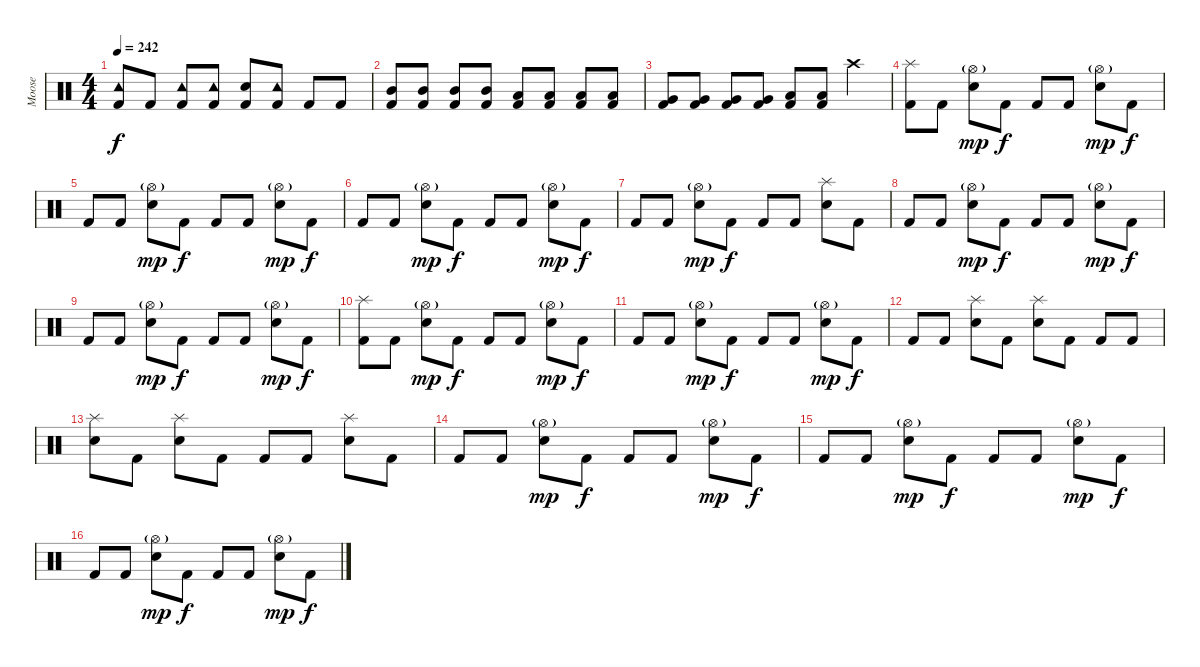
\track ("Moose" "Moose") {instrument percussion}
\staff {score}
\articulation defaults
\ts (4 4)
\tempo 242
\clef neutral
\ks c
("Tambourine (hit)" "Kick (hit) 2").8{dy f} "Kick (hit) 2".8 ("Tambourine (hit)" "Kick (hit) 2").8 ("Tambourine (hit)" "Kick (hit) 2").8 ("Electric Snare (hit)" "Kick (hit) 2").8 ("Tambourine (hit)" "Kick (hit) 2").8 "Kick (hit) 2".8 "Kick (hit) 2".8 |
("Mid Tom (hit)" "Kick (hit) 2").8 ("Mid Tom (hit)" "Kick (hit) 2").8 ("Mid Tom (hit)" "Kick (hit) 2").8 ("Mid Tom (hit)" "Kick (hit) 2").8 ("Low Tom (hit)" "Kick (hit) 2").8 ("Low Tom (hit)" "Kick (hit) 2").8 ("Low Tom (hit)" "Kick (hit) 2").8 ("Low Tom (hit)" "Kick (hit) 2").8 |
("Very Low Tom (hit)" "Kick (hit) 2").8 ("Very Low Tom (hit)" "Kick (hit) 2").8 ("Very Low Tom (hit)" "Kick (hit) 2").8 ("Very Low Tom (hit)" "Kick (hit) 2").8 ("Low Floor Tom (hit)" "Kick (hit) 2").8 ("Low Floor Tom (hit)" "Kick (hit) 2").8 "Crash high (hit)".4 |
("Splash (hit)" "Kick (hit) 2").8 "Kick (hit) 2".8 ("Hi-Hat (open)"{g} "Electric Snare (hit)").8{dy mp} "Kick (hit) 2".8{dy f} "Kick (hit) 2".8 "Kick (hit) 2".8 ("Hi-Hat (open)"{g} "Electric Snare (hit)").8{dy mp} "Kick (hit) 2".8{dy f} |
"Kick (hit) 2".8 "Kick (hit) 2".8 ("Hi-Hat (open)"{g} "Electric Snare (hit)").8{dy mp} "Kick (hit) 2".8{dy f} "Kick (hit) 2".8 "Kick (hit) 2".8 ("Hi-Hat (open)"{g} "Electric Snare (hit)").8{dy mp} "Kick (hit) 2".8{dy f} |
"Kick (hit) 2".8 "Kick (hit) 2".8 ("Hi-Hat (open)"{g} "Electric Snare (hit)").8{dy mp} "Kick (hit) 2".8{dy f} "Kick (hit) 2".8 "Kick (hit) 2".8 ("Hi-Hat (open)"{g} "Electric Snare (hit)").8{dy mp} "Kick (hit) 2".8{dy f} |
"Kick (hit) 2".8 "Kick (hit) 2".8 ("Hi-Hat (open)"{g} "Electric Snare (hit)").8{dy mp} "Kick (hit) 2".8{dy f} "Kick (hit) 2".8 "Kick (hit) 2".8 ("Splash (hit)" "Electric Snare (hit)").8 "Kick (hit) 2".8 |
"Kick (hit) 2".8 "Kick (hit) 2".8 ("Hi-Hat (open)"{g} "Electric Snare (hit)").8{dy mp} "Kick (hit) 2".8{dy f} "Kick (hit) 2".8 "Kick (hit) 2".8 ("Hi-Hat (open)"{g} "Electric Snare (hit)").8{dy mp} "Kick (hit) 2".8{dy f} |
"Kick (hit) 2".8 "Kick (hit) 2".8 ("Hi-Hat (open)"{g} "Electric Snare (hit)").8{dy mp} "Kick (hit) 2".8{dy f} "Kick (hit) 2".8 "Kick (hit) 2".8 ("Hi-Hat (open)"{g} "Electric Snare (hit)").8{dy mp} "Kick (hit) 2".8{dy f} |
("Splash (hit)" "Kick (hit) 2").8 "Kick (hit) 2".8 ("Hi-Hat (open)"{g} "Electric Snare (hit)").8{dy mp} "Kick (hit) 2".8{dy f} "Kick (hit) 2".8 "Kick (hit) 2".8 ("Hi-Hat (open)"{g} "Electric Snare (hit)").8{dy mp} "Kick (hit) 2".8{dy f} |
"Kick (hit) 2".8 "Kick (hit) 2".8 ("Hi-Hat (open)"{g} "Electric Snare (hit)").8{dy mp} "Kick (hit) 2".8{dy f} "Kick (hit) 2".8 "Kick (hit) 2".8 ("Hi-Hat (open)"{g} "Electric Snare (hit)").8{dy mp} "Kick (hit) 2".8{dy f} |
"Kick (hit) 2".8 "Kick (hit) 2".8 ("Splash (hit)" "Electric Snare (hit)").8 "Kick (hit) 2".8 ("Splash (hit)" "Electric Snare (hit)").8 "Kick (hit) 2".8 "Kick (hit) 2".8 "Kick (hit) 2".8 |
("Splash (hit)" "Electric Snare (hit)").8 "Kick (hit) 2".8 ("Splash (hit)" "Electric Snare (hit)").8 "Kick (hit) 2".8 "Kick (hit) 2".8 "Kick (hit) 2".8 ("Splash (hit)" "Electric Snare (hit)").8 "Kick (hit) 2".8 |
"Kick (hit) 2".8 "Kick (hit) 2".8 ("Hi-Hat (open)"{g} "Electric Snare (hit)").8{dy mp} "Kick (hit) 2".8{dy f} "Kick (hit) 2".8 "Kick (hit) 2".8 ("Hi-Hat (open)"{g} "Electric Snare (hit)").8{dy mp} "Kick (hit) 2".8{dy f} |
"Kick (hit) 2".8 "Kick (hit) 2".8 ("Hi-Hat (open)"{g} "Electric Snare (hit)").8{dy mp} "Kick (hit) 2".8{dy f} "Kick (hit) 2".8 "Kick (hit) 2".8 ("Hi-Hat (open)"{g} "Electric Snare (hit)").8{dy mp} "Kick (hit) 2".8{dy f} |
"Kick (hit) 2".8 "Kick (hit) 2".8 ("Hi-Hat (open)"{g} "Electric Snare (hit)").8{dy mp} "Kick (hit) 2".8{dy f} "Kick (hit) 2".8 "Kick (hit) 2".8 ("Hi-Hat (open)"{g} "Electric Snare (hit)").8{dy mp} "Kick (hit) 2".8{dy f}
